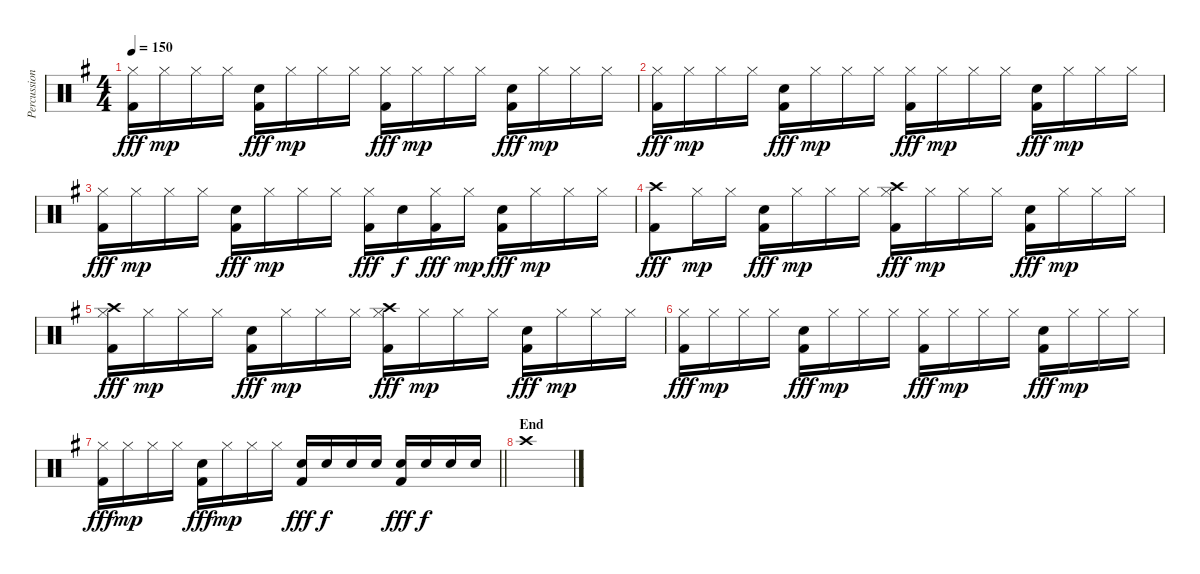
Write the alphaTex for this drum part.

\track ("Percussion" "Percussion") {instrument percussion}
\staff {score}
\articulation defaults
\ts (4 4)
\tempo 150
\clef neutral
\ks eminor
("Hi-Hat (closed)" "Kick (hit) 2").16{dy fff} "Hi-Hat (closed)".16{dy mp} "Hi-Hat (closed)".16 "Hi-Hat (closed)".16 ("Electric Snare (hit)" "Kick (hit) 2").16{dy fff} "Hi-Hat (closed)".16{dy mp} "Hi-Hat (closed)".16 "Hi-Hat (closed)".16 ("Hi-Hat (closed)" "Kick (hit) 2").16{dy fff} "Hi-Hat (closed)".16{dy mp} "Hi-Hat (closed)".16 "Hi-Hat (closed)".16 ("Electric Snare (hit)" "Kick (hit) 2").16{dy fff} "Hi-Hat (closed)".16{dy mp} "Hi-Hat (closed)".16 "Hi-Hat (closed)".16 |
("Hi-Hat (closed)" "Kick (hit) 2").16{dy fff} "Hi-Hat (closed)".16{dy mp} "Hi-Hat (closed)".16 "Hi-Hat (closed)".16 ("Electric Snare (hit)" "Kick (hit) 2").16{dy fff} "Hi-Hat (closed)".16{dy mp} "Hi-Hat (closed)".16 "Hi-Hat (closed)".16 ("Hi-Hat (closed)" "Kick (hit) 2").16{dy fff} "Hi-Hat (closed)".16{dy mp} "Hi-Hat (closed)".16 "Hi-Hat (closed)".16 ("Electric Snare (hit)" "Kick (hit) 2").16{dy fff} "Hi-Hat (closed)".16{dy mp} "Hi-Hat (closed)".16 "Hi-Hat (closed)".16 |
("Hi-Hat (closed)" "Kick (hit) 2").16{dy fff} "Hi-Hat (closed)".16{dy mp} "Hi-Hat (closed)".16 "Hi-Hat (closed)".16 ("Electric Snare (hit)" "Kick (hit) 2").16{dy fff} "Hi-Hat (closed)".16{dy mp} "Hi-Hat (closed)".16 "Hi-Hat (closed)".16 ("Hi-Hat (closed)" "Kick (hit) 2").16{dy fff} "Electric Snare (hit)".16{dy f} ("Hi-Hat (closed)" "Kick (hit) 2").16{dy fff} "Hi-Hat (closed)".16{dy mp} ("Electric Snare (hit)" "Kick (hit) 2").16{dy fff} "Hi-Hat (closed)".16{dy mp} "Hi-Hat (closed)".16 "Hi-Hat (closed)".16 |
("Crash high (hit)" "Kick (hit) 2").8{dy fff} "Hi-Hat (closed)".16{dy mp} "Hi-Hat (closed)".16 ("Electric Snare (hit)" "Kick (hit) 2").16{dy fff} "Hi-Hat (closed)".16{dy mp} "Hi-Hat (closed)".16 "Hi-Hat (closed)".16 ("Hi-Hat (closed)" "Crash high (hit)" "Kick (hit) 2").16{dy fff} "Hi-Hat (closed)".16{dy mp} "Hi-Hat (closed)".16 "Hi-Hat (closed)".16 ("Electric Snare (hit)" "Kick (hit) 2").16{dy fff} "Hi-Hat (closed)".16{dy mp} "Hi-Hat (closed)".16 "Hi-Hat (closed)".16 |
("Hi-Hat (closed)" "Crash high (hit)" "Kick (hit) 2").16{dy fff} "Hi-Hat (closed)".16{dy mp} "Hi-Hat (closed)".16 "Hi-Hat (closed)".16 ("Electric Snare (hit)" "Kick (hit) 2").16{dy fff} "Hi-Hat (closed)".16{dy mp} "Hi-Hat (closed)".16 "Hi-Hat (closed)".16 ("Hi-Hat (closed)" "Crash high (hit)" "Kick (hit) 2").16{dy fff} "Hi-Hat (closed)".16{dy mp} "Hi-Hat (closed)".16 "Hi-Hat (closed)".16 ("Electric Snare (hit)" "Kick (hit) 2").16{dy fff} "Hi-Hat (closed)".16{dy mp} "Hi-Hat (closed)".16 "Hi-Hat (closed)".16 |
("Hi-Hat (closed)" "Kick (hit) 2").16{dy fff} "Hi-Hat (closed)".16{dy mp} "Hi-Hat (closed)".16 "Hi-Hat (closed)".16 ("Electric Snare (hit)" "Kick (hit) 2").16{dy fff} "Hi-Hat (closed)".16{dy mp} "Hi-Hat (closed)".16 "Hi-Hat (closed)".16 ("Hi-Hat (closed)" "Kick (hit) 2").16{dy fff} "Hi-Hat (closed)".16{dy mp} "Hi-Hat (closed)".16 "Hi-Hat (closed)".16 ("Electric Snare (hit)" "Kick (hit) 2").16{dy fff} "Hi-Hat (closed)".16{dy mp} "Hi-Hat (closed)".16 "Hi-Hat (closed)".16 |
\barLineRight lightlight
("Hi-Hat (closed)" "Kick (hit) 2").16{dy fff} "Hi-Hat (closed)".16{dy mp} "Hi-Hat (closed)".16 "Hi-Hat (closed)".16 ("Electric Snare (hit)" "Kick (hit) 2").16{dy fff} "Hi-Hat (closed)".16{dy mp} "Hi-Hat (closed)".16 "Hi-Hat (closed)".16 ("Electric Snare (hit)" "Kick (hit) 2").16{dy fff} "Electric Snare (hit)".16{dy f} "Electric Snare (hit)".16 "Electric Snare (hit)".16 ("Electric Snare (hit)" "Kick (hit) 2").16{dy fff} "Electric Snare (hit)".16{dy f} "Electric Snare (hit)".16 "Electric Snare (hit)".16 |
\section ("" "End")
"Crash high (hit)".1
